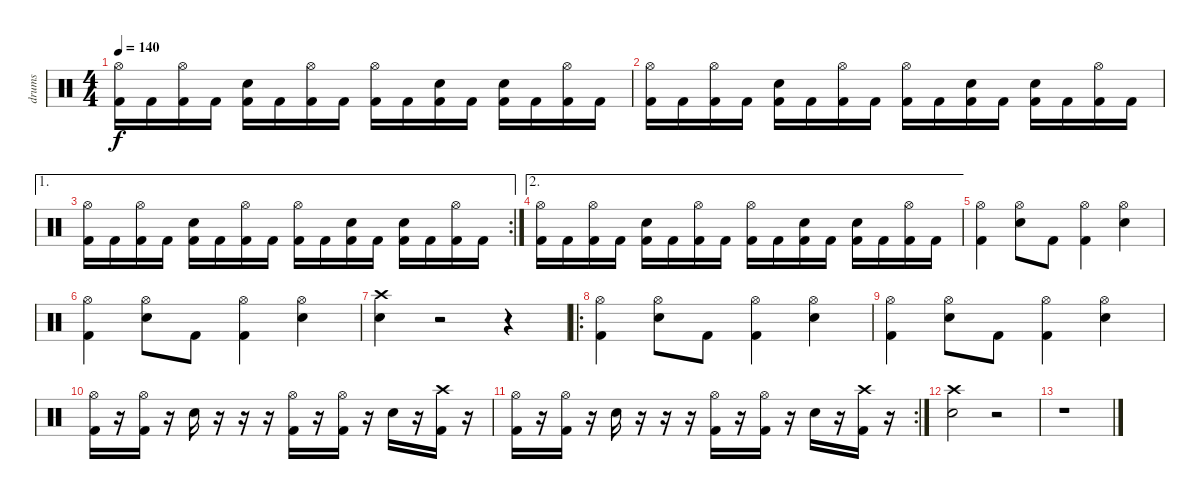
\track ("drums" "drums") {instrument percussion}
\staff {score}
\articulation defaults
\ts (4 4)
\tempo 140
\clef neutral
\ks c
("Hi-Hat (open)" "Kick (hit) 2").16{dy f} "Kick (hit) 2".16 ("Hi-Hat (open)" "Kick (hit) 2").16 "Kick (hit) 2".16 ("Electric Snare (hit)" "Kick (hit) 2").16 "Kick (hit) 2".16 ("Hi-Hat (open)" "Kick (hit) 2").16 "Kick (hit) 2".16 ("Hi-Hat (open)" "Kick (hit) 2").16 "Kick (hit) 2".16 ("Electric Snare (hit)" "Kick (hit) 2").16 "Kick (hit) 2".16 ("Electric Snare (hit)" "Kick (hit) 2").16 "Kick (hit) 2".16 ("Hi-Hat (open)" "Kick (hit) 2").16 "Kick (hit) 2".16 |
("Hi-Hat (open)" "Kick (hit) 2").16 "Kick (hit) 2".16 ("Hi-Hat (open)" "Kick (hit) 2").16 "Kick (hit) 2".16 ("Electric Snare (hit)" "Kick (hit) 2").16 "Kick (hit) 2".16 ("Hi-Hat (open)" "Kick (hit) 2").16 "Kick (hit) 2".16 ("Hi-Hat (open)" "Kick (hit) 2").16 "Kick (hit) 2".16 ("Electric Snare (hit)" "Kick (hit) 2").16 "Kick (hit) 2".16 ("Electric Snare (hit)" "Kick (hit) 2").16 "Kick (hit) 2".16 ("Hi-Hat (open)" "Kick (hit) 2").16 "Kick (hit) 2".16 |
\ae 1
\rc 2
("Hi-Hat (open)" "Kick (hit) 2").16 "Kick (hit) 2".16 ("Hi-Hat (open)" "Kick (hit) 2").16 "Kick (hit) 2".16 ("Electric Snare (hit)" "Kick (hit) 2").16 "Kick (hit) 2".16 ("Hi-Hat (open)" "Kick (hit) 2").16 "Kick (hit) 2".16 ("Hi-Hat (open)" "Kick (hit) 2").16 "Kick (hit) 2".16 ("Electric Snare (hit)" "Kick (hit) 2").16 "Kick (hit) 2".16 ("Electric Snare (hit)" "Kick (hit) 2").16 "Kick (hit) 2".16 ("Hi-Hat (open)" "Kick (hit) 2").16 "Kick (hit) 2".16 |
\ae 2
("Hi-Hat (open)" "Kick (hit) 2").16 "Kick (hit) 2".16 ("Hi-Hat (open)" "Kick (hit) 2").16 "Kick (hit) 2".16 ("Electric Snare (hit)" "Kick (hit) 2").16 "Kick (hit) 2".16 ("Hi-Hat (open)" "Kick (hit) 2").16 "Kick (hit) 2".16 ("Hi-Hat (open)" "Kick (hit) 2").16 "Kick (hit) 2".16 ("Electric Snare (hit)" "Kick (hit) 2").16 "Kick (hit) 2".16 ("Electric Snare (hit)" "Kick (hit) 2").16 "Kick (hit) 2".16 ("Hi-Hat (open)" "Kick (hit) 2").16 "Kick (hit) 2".16 |
("Hi-Hat (open)" "Kick (hit) 2").4 ("Hi-Hat (open)" "Electric Snare (hit)").8 "Kick (hit) 2".8 ("Hi-Hat (open)" "Kick (hit) 2").4 ("Hi-Hat (open)" "Electric Snare (hit)").4 |
("Hi-Hat (open)" "Kick (hit) 2").4 ("Hi-Hat (open)" "Electric Snare (hit)").8 "Kick (hit) 2".8 ("Hi-Hat (open)" "Kick (hit) 2").4 ("Hi-Hat (open)" "Electric Snare (hit)").4 |
("Crash high (hit)" "Electric Snare (hit)").4 r.2 r.4 |
\ro
("Hi-Hat (open)" "Kick (hit) 2").4 ("Hi-Hat (open)" "Electric Snare (hit)").8 "Kick (hit) 2".8 ("Hi-Hat (open)" "Kick (hit) 2").4 ("Hi-Hat (open)" "Electric Snare (hit)").4 |
("Hi-Hat (open)" "Kick (hit) 2").4 ("Hi-Hat (open)" "Electric Snare (hit)").8 "Kick (hit) 2".8 ("Hi-Hat (open)" "Kick (hit) 2").4 ("Hi-Hat (open)" "Electric Snare (hit)").4 |
("Hi-Hat (open)" "Kick (hit) 2").16 r.16 ("Hi-Hat (open)" "Kick (hit) 2").16 r.16 "Electric Snare (hit)".16 r.16 r.16 r.16 ("Hi-Hat (open)" "Kick (hit) 2").16 r.16 ("Hi-Hat (open)" "Kick (hit) 2").16 r.16 "Electric Snare (hit)".16 r.16 ("Crash high (hit)" "Kick (hit) 2").16 r.16 |
\rc 2
("Hi-Hat (open)" "Kick (hit) 2").16 r.16 ("Hi-Hat (open)" "Kick (hit) 2").16 r.16 "Electric Snare (hit)".16 r.16 r.16 r.16 ("Hi-Hat (open)" "Kick (hit) 2").16 r.16 ("Hi-Hat (open)" "Kick (hit) 2").16 r.16 "Electric Snare (hit)".16 r.16 ("Crash high (hit)" "Kick (hit) 2").16 r.16 |
("Crash high (hit)" "Electric Snare (hit)").2 r.2 |
r.1
